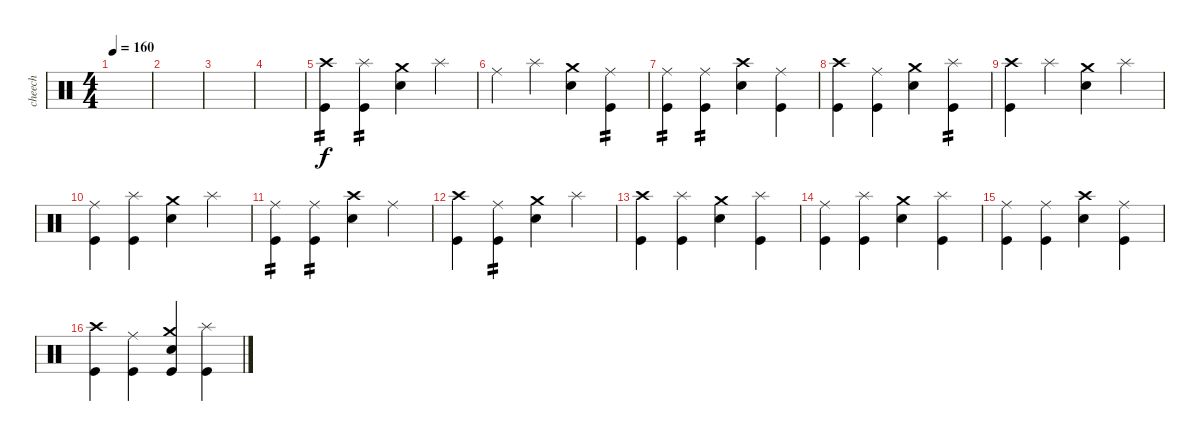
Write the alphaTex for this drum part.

\track ("cheech" "cheech") {instrument percussion}
\staff {score}
\articulation defaults
\ts (4 4)
\tempo 160
\clef neutral
\ks c
|
|
|
|
("Crash high (hit)" "Kick (hit)").4{tp 2} ("Splash (hit)" "Kick (hit)").4{tp 2} ("Crash medium (hit)" "Electric Snare (hit)").4 "Splash (hit)".4 |
"Ride (middle)".4 "Splash (hit)".4 ("Crash medium (hit)" "Electric Snare (hit)").4 ("Ride (middle)" "Kick (hit)").4{tp 2} |
("Ride (middle)" "Kick (hit)").4{tp 2} ("Ride (middle)" "Kick (hit)").4{tp 2} ("Crash high (hit)" "Electric Snare (hit)").4 ("Ride (middle)" "Kick (hit)").4 |
("Crash high (hit)" "Kick (hit)").4 ("Ride (middle)" "Kick (hit)").4 ("Crash medium (hit)" "Electric Snare (hit)").4 ("Splash (hit)" "Kick (hit)").4{tp 2} |
("Crash high (hit)" "Kick (hit)").4 "Splash (hit)".4 ("Crash medium (hit)" "Electric Snare (hit)").4 "Splash (hit)".4 |
("Ride (middle)" "Kick (hit)").4 ("Splash (hit)" "Kick (hit)").4 ("Crash medium (hit)" "Electric Snare (hit)").4 "Splash (hit)".4 |
("Ride (middle)" "Kick (hit)").4{tp 2} ("Ride (middle)" "Kick (hit)").4{tp 2} ("Crash high (hit)" "Electric Snare (hit)").4 "Ride (middle)".4 |
("Crash high (hit)" "Kick (hit)").4 ("Ride (middle)" "Kick (hit)").4{tp 2} ("Crash medium (hit)" "Electric Snare (hit)").4 "Splash (hit)".4 |
("Crash high (hit)" "Kick (hit)").4 ("Splash (hit)" "Kick (hit)").4 ("Crash medium (hit)" "Electric Snare (hit)").4 ("Splash (hit)" "Kick (hit)").4 |
("Ride (middle)" "Kick (hit)").4 ("Splash (hit)" "Kick (hit)").4 ("Crash medium (hit)" "Electric Snare (hit)").4 ("Splash (hit)" "Kick (hit)").4 |
("Ride (middle)" "Kick (hit)").4 ("Ride (middle)" "Kick (hit)").4 ("Crash high (hit)" "Electric Snare (hit)").4 ("Ride (middle)" "Kick (hit)").4 |
("Crash high (hit)" "Kick (hit)").4 ("Ride (middle)" "Kick (hit)").4 ("Crash medium (hit)" "Electric Snare (hit)" "Kick (hit)").4 ("Splash (hit)" "Kick (hit)").4
